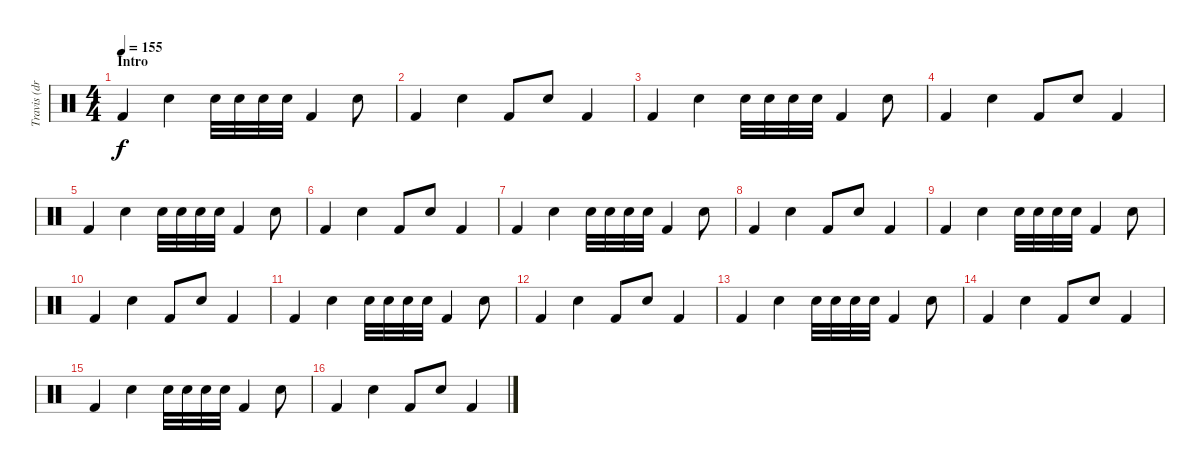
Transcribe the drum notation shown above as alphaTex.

\track ("Travis (drums)" "Travis (dr") {instrument percussion}
\staff {score}
\articulation defaults
\ts (4 4)
\section ("" "Intro")
\tempo 155
\clef neutral
\ks c "Kick (hit) 2".4{dy f} "Snare (hit) 2".4 "Snare (hit) 2".32 "Snare (hit) 2".32 "Snare (hit) 2".32 "Snare (hit) 2".32 "Kick (hit) 2".4 "Snare (hit) 2".8
|
"Kick (hit) 2".4 "Snare (hit) 2".4 "Kick (hit) 2".8 "Snare (hit) 2".8 "Kick (hit) 2".4 |
"Kick (hit) 2".4 "Snare (hit) 2".4 "Snare (hit) 2".32 "Snare (hit) 2".32 "Snare (hit) 2".32 "Snare (hit) 2".32 "Kick (hit) 2".4 "Snare (hit) 2".8 |
"Kick (hit) 2".4 "Snare (hit) 2".4 "Kick (hit) 2".8 "Snare (hit) 2".8 "Kick (hit) 2".4 |
"Kick (hit) 2".4 "Snare (hit) 2".4 "Snare (hit) 2".32 "Snare (hit) 2".32 "Snare (hit) 2".32 "Snare (hit) 2".32 "Kick (hit) 2".4 "Snare (hit) 2".8 |
"Kick (hit) 2".4 "Snare (hit) 2".4 "Kick (hit) 2".8 "Snare (hit) 2".8 "Kick (hit) 2".4 |
"Kick (hit) 2".4 "Snare (hit) 2".4 "Snare (hit) 2".32 "Snare (hit) 2".32 "Snare (hit) 2".32 "Snare (hit) 2".32 "Kick (hit) 2".4 "Snare (hit) 2".8 |
"Kick (hit) 2".4 "Snare (hit) 2".4 "Kick (hit) 2".8 "Snare (hit) 2".8 "Kick (hit) 2".4 |
"Kick (hit) 2".4 "Snare (hit) 2".4 "Snare (hit) 2".32 "Snare (hit) 2".32 "Snare (hit) 2".32 "Snare (hit) 2".32 "Kick (hit) 2".4 "Snare (hit) 2".8 |
"Kick (hit) 2".4 "Snare (hit) 2".4 "Kick (hit) 2".8 "Snare (hit) 2".8 "Kick (hit) 2".4 |
"Kick (hit) 2".4 "Snare (hit) 2".4 "Snare (hit) 2".32 "Snare (hit) 2".32 "Snare (hit) 2".32 "Snare (hit) 2".32 "Kick (hit) 2".4 "Snare (hit) 2".8 |
"Kick (hit) 2".4 "Snare (hit) 2".4 "Kick (hit) 2".8 "Snare (hit) 2".8 "Kick (hit) 2".4 |
"Kick (hit) 2".4 "Snare (hit) 2".4 "Snare (hit) 2".32 "Snare (hit) 2".32 "Snare (hit) 2".32 "Snare (hit) 2".32 "Kick (hit) 2".4 "Snare (hit) 2".8 |
"Kick (hit) 2".4 "Snare (hit) 2".4 "Kick (hit) 2".8 "Snare (hit) 2".8 "Kick (hit) 2".4 |
"Kick (hit) 2".4 "Snare (hit) 2".4 "Snare (hit) 2".32 "Snare (hit) 2".32 "Snare (hit) 2".32 "Snare (hit) 2".32 "Kick (hit) 2".4 "Snare (hit) 2".8 |
"Kick (hit) 2".4 "Snare (hit) 2".4 "Kick (hit) 2".8 "Snare (hit) 2".8 "Kick (hit) 2".4
